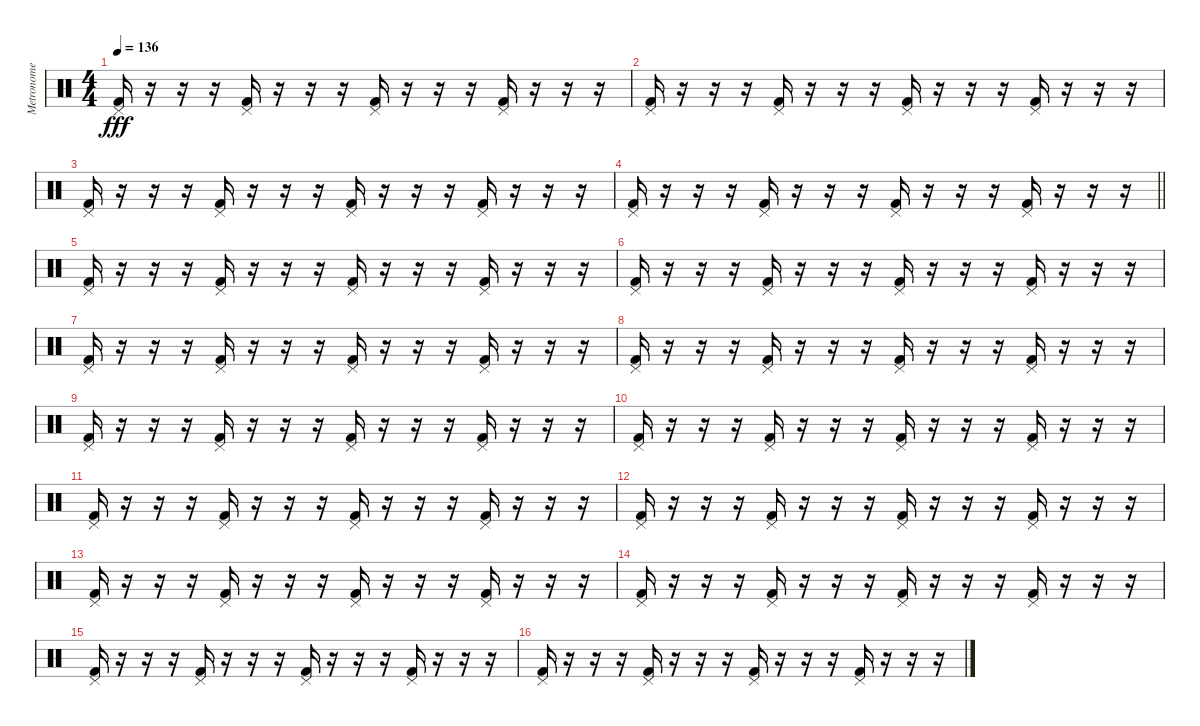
\track ("Metronome" "Metronome") {mute instrument percussion}
\staff {score}
\articulation defaults
\ts (4 4)
\tempo 136
\clef neutral
\ks c
("Pedal Hi-Hat (hit)" "Kick (hit) 2").16{dy fff} r.16 r.16 r.16 ("Pedal Hi-Hat (hit)" "Kick (hit) 2").16 r.16 r.16 r.16 ("Pedal Hi-Hat (hit)" "Kick (hit) 2").16 r.16 r.16 r.16 ("Pedal Hi-Hat (hit)" "Kick (hit) 2").16 r.16 r.16 r.16 |
("Pedal Hi-Hat (hit)" "Kick (hit) 2").16 r.16 r.16 r.16 ("Pedal Hi-Hat (hit)" "Kick (hit) 2").16 r.16 r.16 r.16 ("Pedal Hi-Hat (hit)" "Kick (hit) 2").16 r.16 r.16 r.16 ("Pedal Hi-Hat (hit)" "Kick (hit) 2").16 r.16 r.16 r.16 |
("Pedal Hi-Hat (hit)" "Kick (hit) 2").16 r.16 r.16 r.16 ("Pedal Hi-Hat (hit)" "Kick (hit) 2").16 r.16 r.16 r.16 ("Pedal Hi-Hat (hit)" "Kick (hit) 2").16 r.16 r.16 r.16 ("Pedal Hi-Hat (hit)" "Kick (hit) 2").16 r.16 r.16 r.16 |
\barLineRight lightlight
("Pedal Hi-Hat (hit)" "Kick (hit) 2").16 r.16 r.16 r.16 ("Pedal Hi-Hat (hit)" "Kick (hit) 2").16 r.16 r.16 r.16 ("Pedal Hi-Hat (hit)" "Kick (hit) 2").16 r.16 r.16 r.16 ("Pedal Hi-Hat (hit)" "Kick (hit) 2").16 r.16 r.16 r.16 |
("Pedal Hi-Hat (hit)" "Kick (hit) 2").16 r.16 r.16 r.16 ("Pedal Hi-Hat (hit)" "Kick (hit) 2").16 r.16 r.16 r.16 ("Pedal Hi-Hat (hit)" "Kick (hit) 2").16 r.16 r.16 r.16 ("Pedal Hi-Hat (hit)" "Kick (hit) 2").16 r.16 r.16 r.16 |
("Pedal Hi-Hat (hit)" "Kick (hit) 2").16 r.16 r.16 r.16 ("Pedal Hi-Hat (hit)" "Kick (hit) 2").16 r.16 r.16 r.16 ("Pedal Hi-Hat (hit)" "Kick (hit) 2").16 r.16 r.16 r.16 ("Pedal Hi-Hat (hit)" "Kick (hit) 2").16 r.16 r.16 r.16 |
("Pedal Hi-Hat (hit)" "Kick (hit) 2").16 r.16 r.16 r.16 ("Pedal Hi-Hat (hit)" "Kick (hit) 2").16 r.16 r.16 r.16 ("Pedal Hi-Hat (hit)" "Kick (hit) 2").16 r.16 r.16 r.16 ("Pedal Hi-Hat (hit)" "Kick (hit) 2").16 r.16 r.16 r.16 |
("Pedal Hi-Hat (hit)" "Kick (hit) 2").16 r.16 r.16 r.16 ("Pedal Hi-Hat (hit)" "Kick (hit) 2").16 r.16 r.16 r.16 ("Pedal Hi-Hat (hit)" "Kick (hit) 2").16 r.16 r.16 r.16 ("Pedal Hi-Hat (hit)" "Kick (hit) 2").16 r.16 r.16 r.16 |
("Pedal Hi-Hat (hit)" "Kick (hit) 2").16 r.16 r.16 r.16 ("Pedal Hi-Hat (hit)" "Kick (hit) 2").16 r.16 r.16 r.16 ("Pedal Hi-Hat (hit)" "Kick (hit) 2").16 r.16 r.16 r.16 ("Pedal Hi-Hat (hit)" "Kick (hit) 2").16 r.16 r.16 r.16 |
("Pedal Hi-Hat (hit)" "Kick (hit) 2").16 r.16 r.16 r.16 ("Pedal Hi-Hat (hit)" "Kick (hit) 2").16 r.16 r.16 r.16 ("Pedal Hi-Hat (hit)" "Kick (hit) 2").16 r.16 r.16 r.16 ("Pedal Hi-Hat (hit)" "Kick (hit) 2").16 r.16 r.16 r.16 |
("Pedal Hi-Hat (hit)" "Kick (hit) 2").16 r.16 r.16 r.16 ("Pedal Hi-Hat (hit)" "Kick (hit) 2").16 r.16 r.16 r.16 ("Pedal Hi-Hat (hit)" "Kick (hit) 2").16 r.16 r.16 r.16 ("Pedal Hi-Hat (hit)" "Kick (hit) 2").16 r.16 r.16 r.16 |
("Pedal Hi-Hat (hit)" "Kick (hit) 2").16 r.16 r.16 r.16 ("Pedal Hi-Hat (hit)" "Kick (hit) 2").16 r.16 r.16 r.16 ("Pedal Hi-Hat (hit)" "Kick (hit) 2").16 r.16 r.16 r.16 ("Pedal Hi-Hat (hit)" "Kick (hit) 2").16 r.16 r.16 r.16 |
("Pedal Hi-Hat (hit)" "Kick (hit) 2").16 r.16 r.16 r.16 ("Pedal Hi-Hat (hit)" "Kick (hit) 2").16 r.16 r.16 r.16 ("Pedal Hi-Hat (hit)" "Kick (hit) 2").16 r.16 r.16 r.16 ("Pedal Hi-Hat (hit)" "Kick (hit) 2").16 r.16 r.16 r.16 |
("Pedal Hi-Hat (hit)" "Kick (hit) 2").16 r.16 r.16 r.16 ("Pedal Hi-Hat (hit)" "Kick (hit) 2").16 r.16 r.16 r.16 ("Pedal Hi-Hat (hit)" "Kick (hit) 2").16 r.16 r.16 r.16 ("Pedal Hi-Hat (hit)" "Kick (hit) 2").16 r.16 r.16 r.16 |
("Pedal Hi-Hat (hit)" "Kick (hit) 2").16 r.16 r.16 r.16 ("Pedal Hi-Hat (hit)" "Kick (hit) 2").16 r.16 r.16 r.16 ("Pedal Hi-Hat (hit)" "Kick (hit) 2").16 r.16 r.16 r.16 ("Pedal Hi-Hat (hit)" "Kick (hit) 2").16 r.16 r.16 r.16 |
("Pedal Hi-Hat (hit)" "Kick (hit) 2").16 r.16 r.16 r.16 ("Pedal Hi-Hat (hit)" "Kick (hit) 2").16 r.16 r.16 r.16 ("Pedal Hi-Hat (hit)" "Kick (hit) 2").16 r.16 r.16 r.16 ("Pedal Hi-Hat (hit)" "Kick (hit) 2").16 r.16 r.16 r.16
